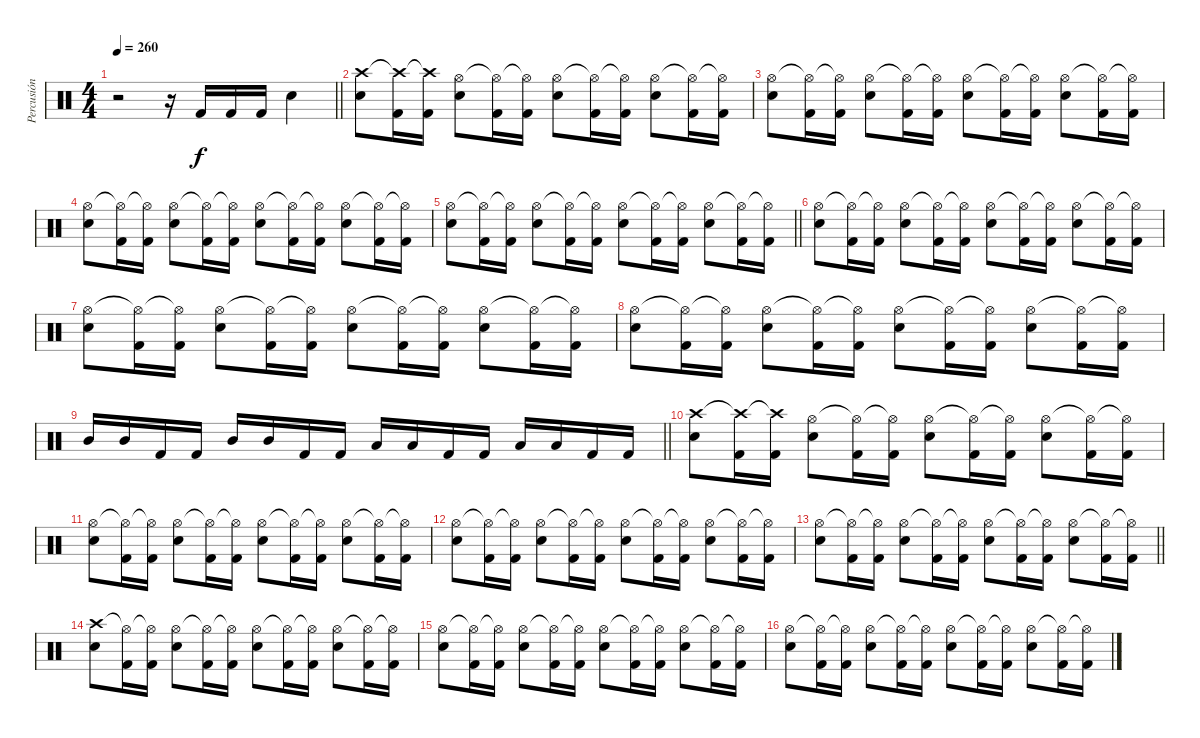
\track ("Percusión" "Percusión") {instrument percussion}
\staff {score}
\articulation defaults
\ts (4 4)
\tempo 260
\clef neutral
\barLineRight lightlight
\ks c
r.2{dy f} r.16 "Kick (hit) 2".16 "Kick (hit) 2".16 "Kick (hit) 2".16 "Snare (hit) 2".4 |
("Snare (hit) 2" "Crash high (hit)").8 ("Kick (hit) 2" "Crash high (hit)"{t}).16 ("Kick (hit) 2" "Crash high (hit)"{t}).16 ("Snare (hit) 2" "Hi-Hat (open)").8 ("Kick (hit) 2" "Hi-Hat (open)"{t}).16 ("Kick (hit) 2" "Hi-Hat (open)"{t}).16 ("Snare (hit) 2" "Hi-Hat (open)").8 ("Kick (hit) 2" "Hi-Hat (open)"{t}).16 ("Kick (hit) 2" "Hi-Hat (open)"{t}).16 ("Snare (hit) 2" "Hi-Hat (open)").8 ("Kick (hit) 2" "Hi-Hat (open)"{t}).16 ("Kick (hit) 2" "Hi-Hat (open)"{t}).16 |
("Snare (hit) 2" "Hi-Hat (open)").8 ("Kick (hit) 2" "Hi-Hat (open)"{t}).16 ("Kick (hit) 2" "Hi-Hat (open)"{t}).16 ("Snare (hit) 2" "Hi-Hat (open)").8 ("Kick (hit) 2" "Hi-Hat (open)"{t}).16 ("Kick (hit) 2" "Hi-Hat (open)"{t}).16 ("Snare (hit) 2" "Hi-Hat (open)").8 ("Kick (hit) 2" "Hi-Hat (open)"{t}).16 ("Kick (hit) 2" "Hi-Hat (open)"{t}).16 ("Snare (hit) 2" "Hi-Hat (open)").8 ("Kick (hit) 2" "Hi-Hat (open)"{t}).16 ("Kick (hit) 2" "Hi-Hat (open)"{t}).16 |
("Snare (hit) 2" "Hi-Hat (open)").8 ("Kick (hit) 2" "Hi-Hat (open)"{t}).16 ("Kick (hit) 2" "Hi-Hat (open)"{t}).16 ("Snare (hit) 2" "Hi-Hat (open)").8 ("Kick (hit) 2" "Hi-Hat (open)"{t}).16 ("Kick (hit) 2" "Hi-Hat (open)"{t}).16 ("Snare (hit) 2" "Hi-Hat (open)").8 ("Kick (hit) 2" "Hi-Hat (open)"{t}).16 ("Kick (hit) 2" "Hi-Hat (open)"{t}).16 ("Snare (hit) 2" "Hi-Hat (open)").8 ("Kick (hit) 2" "Hi-Hat (open)"{t}).16 ("Kick (hit) 2" "Hi-Hat (open)"{t}).16 |
\barLineRight lightlight
("Snare (hit) 2" "Hi-Hat (open)").8 ("Kick (hit) 2" "Hi-Hat (open)"{t}).16 ("Kick (hit) 2" "Hi-Hat (open)"{t}).16 ("Snare (hit) 2" "Hi-Hat (open)").8 ("Kick (hit) 2" "Hi-Hat (open)"{t}).16 ("Kick (hit) 2" "Hi-Hat (open)"{t}).16 ("Snare (hit) 2" "Hi-Hat (open)").8 ("Kick (hit) 2" "Hi-Hat (open)"{t}).16 ("Kick (hit) 2" "Hi-Hat (open)"{t}).16 ("Snare (hit) 2" "Hi-Hat (open)").8 ("Kick (hit) 2" "Hi-Hat (open)"{t}).16 ("Kick (hit) 2" "Hi-Hat (open)"{t}).16 |
("Snare (hit) 2" "Hi-Hat (open)").8 ("Kick (hit) 2" "Hi-Hat (open)"{t}).16 ("Kick (hit) 2" "Hi-Hat (open)"{t}).16 ("Snare (hit) 2" "Hi-Hat (open)").8 ("Kick (hit) 2" "Hi-Hat (open)"{t}).16 ("Kick (hit) 2" "Hi-Hat (open)"{t}).16 ("Snare (hit) 2" "Hi-Hat (open)").8 ("Kick (hit) 2" "Hi-Hat (open)"{t}).16 ("Kick (hit) 2" "Hi-Hat (open)"{t}).16 ("Snare (hit) 2" "Hi-Hat (open)").8 ("Kick (hit) 2" "Hi-Hat (open)"{t}).16 ("Kick (hit) 2" "Hi-Hat (open)"{t}).16 |
("Snare (hit) 2" "Hi-Hat (open)").8 ("Kick (hit) 2" "Hi-Hat (open)"{t}).16 ("Kick (hit) 2" "Hi-Hat (open)"{t}).16 ("Snare (hit) 2" "Hi-Hat (open)").8 ("Kick (hit) 2" "Hi-Hat (open)"{t}).16 ("Kick (hit) 2" "Hi-Hat (open)"{t}).16 ("Snare (hit) 2" "Hi-Hat (open)").8 ("Kick (hit) 2" "Hi-Hat (open)"{t}).16 ("Kick (hit) 2" "Hi-Hat (open)"{t}).16 ("Snare (hit) 2" "Hi-Hat (open)").8 ("Kick (hit) 2" "Hi-Hat (open)"{t}).16 ("Kick (hit) 2" "Hi-Hat (open)"{t}).16 |
("Snare (hit) 2" "Hi-Hat (open)").8 ("Kick (hit) 2" "Hi-Hat (open)"{t}).16 ("Kick (hit) 2" "Hi-Hat (open)"{t}).16 ("Snare (hit) 2" "Hi-Hat (open)").8 ("Kick (hit) 2" "Hi-Hat (open)"{t}).16 ("Kick (hit) 2" "Hi-Hat (open)"{t}).16 ("Snare (hit) 2" "Hi-Hat (open)").8 ("Kick (hit) 2" "Hi-Hat (open)"{t}).16 ("Kick (hit) 2" "Hi-Hat (open)"{t}).16 ("Snare (hit) 2" "Hi-Hat (open)").8 ("Kick (hit) 2" "Hi-Hat (open)"{t}).16 ("Kick (hit) 2" "Hi-Hat (open)"{t}).16 |
\barLineRight lightlight "Mid Tom (hit)".16 "Mid Tom (hit)".16 "Kick (hit) 2".16 "Kick (hit) 2".16 "Mid Tom (hit)".16 "Mid Tom (hit)".16 "Kick (hit) 2".16 "Kick (hit) 2".16 "Low Tom (hit)".16 "Low Tom (hit)".16 "Kick (hit) 2".16 "Kick (hit) 2".16 "Low Tom (hit)".16 "Low Tom (hit)".16 "Kick (hit) 2".16 "Kick (hit) 2".16
|
("Snare (hit) 2" "Crash high (hit)").8 ("Kick (hit) 2" "Crash high (hit)"{t}).16 ("Kick (hit) 2" "Crash high (hit)"{t}).16 ("Snare (hit) 2" "Hi-Hat (open)").8 ("Kick (hit) 2" "Hi-Hat (open)"{t}).16 ("Kick (hit) 2" "Hi-Hat (open)"{t}).16 ("Snare (hit) 2" "Hi-Hat (open)").8 ("Kick (hit) 2" "Hi-Hat (open)"{t}).16 ("Kick (hit) 2" "Hi-Hat (open)"{t}).16 ("Snare (hit) 2" "Hi-Hat (open)").8 ("Kick (hit) 2" "Hi-Hat (open)"{t}).16 ("Kick (hit) 2" "Hi-Hat (open)"{t}).16 |
("Snare (hit) 2" "Hi-Hat (open)").8 ("Kick (hit) 2" "Hi-Hat (open)"{t}).16 ("Kick (hit) 2" "Hi-Hat (open)"{t}).16 ("Snare (hit) 2" "Hi-Hat (open)").8 ("Kick (hit) 2" "Hi-Hat (open)"{t}).16 ("Kick (hit) 2" "Hi-Hat (open)"{t}).16 ("Snare (hit) 2" "Hi-Hat (open)").8 ("Kick (hit) 2" "Hi-Hat (open)"{t}).16 ("Kick (hit) 2" "Hi-Hat (open)"{t}).16 ("Snare (hit) 2" "Hi-Hat (open)").8 ("Kick (hit) 2" "Hi-Hat (open)"{t}).16 ("Kick (hit) 2" "Hi-Hat (open)"{t}).16 |
("Snare (hit) 2" "Hi-Hat (open)").8 ("Kick (hit) 2" "Hi-Hat (open)"{t}).16 ("Kick (hit) 2" "Hi-Hat (open)"{t}).16 ("Snare (hit) 2" "Hi-Hat (open)").8 ("Kick (hit) 2" "Hi-Hat (open)"{t}).16 ("Kick (hit) 2" "Hi-Hat (open)"{t}).16 ("Snare (hit) 2" "Hi-Hat (open)").8 ("Kick (hit) 2" "Hi-Hat (open)"{t}).16 ("Kick (hit) 2" "Hi-Hat (open)"{t}).16 ("Snare (hit) 2" "Hi-Hat (open)").8 ("Kick (hit) 2" "Hi-Hat (open)"{t}).16 ("Kick (hit) 2" "Hi-Hat (open)"{t}).16 |
\barLineRight lightlight
("Snare (hit) 2" "Hi-Hat (open)").8 ("Kick (hit) 2" "Hi-Hat (open)"{t}).16 ("Kick (hit) 2" "Hi-Hat (open)"{t}).16 ("Snare (hit) 2" "Hi-Hat (open)").8 ("Kick (hit) 2" "Hi-Hat (open)"{t}).16 ("Kick (hit) 2" "Hi-Hat (open)"{t}).16 ("Snare (hit) 2" "Hi-Hat (open)").8 ("Kick (hit) 2" "Hi-Hat (open)"{t}).16 ("Kick (hit) 2" "Hi-Hat (open)"{t}).16 ("Snare (hit) 2" "Hi-Hat (open)").8 ("Kick (hit) 2" "Hi-Hat (open)"{t}).16 ("Kick (hit) 2" "Hi-Hat (open)"{t}).16 |
("Snare (hit) 2" "Crash high (hit)").8 ("Kick (hit) 2" "Hi-Hat (open)"{t}).16 ("Kick (hit) 2" "Hi-Hat (open)"{t}).16 ("Snare (hit) 2" "Hi-Hat (open)").8 ("Kick (hit) 2" "Hi-Hat (open)"{t}).16 ("Kick (hit) 2" "Hi-Hat (open)"{t}).16 ("Snare (hit) 2" "Hi-Hat (open)").8 ("Kick (hit) 2" "Hi-Hat (open)"{t}).16 ("Kick (hit) 2" "Hi-Hat (open)"{t}).16 ("Snare (hit) 2" "Hi-Hat (open)").8 ("Kick (hit) 2" "Hi-Hat (open)"{t}).16 ("Kick (hit) 2" "Hi-Hat (open)"{t}).16 |
("Snare (hit) 2" "Hi-Hat (open)").8 ("Kick (hit) 2" "Hi-Hat (open)"{t}).16 ("Kick (hit) 2" "Hi-Hat (open)"{t}).16 ("Snare (hit) 2" "Hi-Hat (open)").8 ("Kick (hit) 2" "Hi-Hat (open)"{t}).16 ("Kick (hit) 2" "Hi-Hat (open)"{t}).16 ("Snare (hit) 2" "Hi-Hat (open)").8 ("Kick (hit) 2" "Hi-Hat (open)"{t}).16 ("Kick (hit) 2" "Hi-Hat (open)"{t}).16 ("Snare (hit) 2" "Hi-Hat (open)").8 ("Kick (hit) 2" "Hi-Hat (open)"{t}).16 ("Kick (hit) 2" "Hi-Hat (open)"{t}).16 |
("Snare (hit) 2" "Hi-Hat (open)").8 ("Kick (hit) 2" "Hi-Hat (open)"{t}).16 ("Kick (hit) 2" "Hi-Hat (open)"{t}).16 ("Snare (hit) 2" "Hi-Hat (open)").8 ("Kick (hit) 2" "Hi-Hat (open)"{t}).16 ("Kick (hit) 2" "Hi-Hat (open)"{t}).16 ("Snare (hit) 2" "Hi-Hat (open)").8 ("Kick (hit) 2" "Hi-Hat (open)"{t}).16 ("Kick (hit) 2" "Hi-Hat (open)"{t}).16 ("Snare (hit) 2" "Hi-Hat (open)").8 ("Kick (hit) 2" "Hi-Hat (open)"{t}).16 ("Kick (hit) 2" "Hi-Hat (open)"{t}).16
